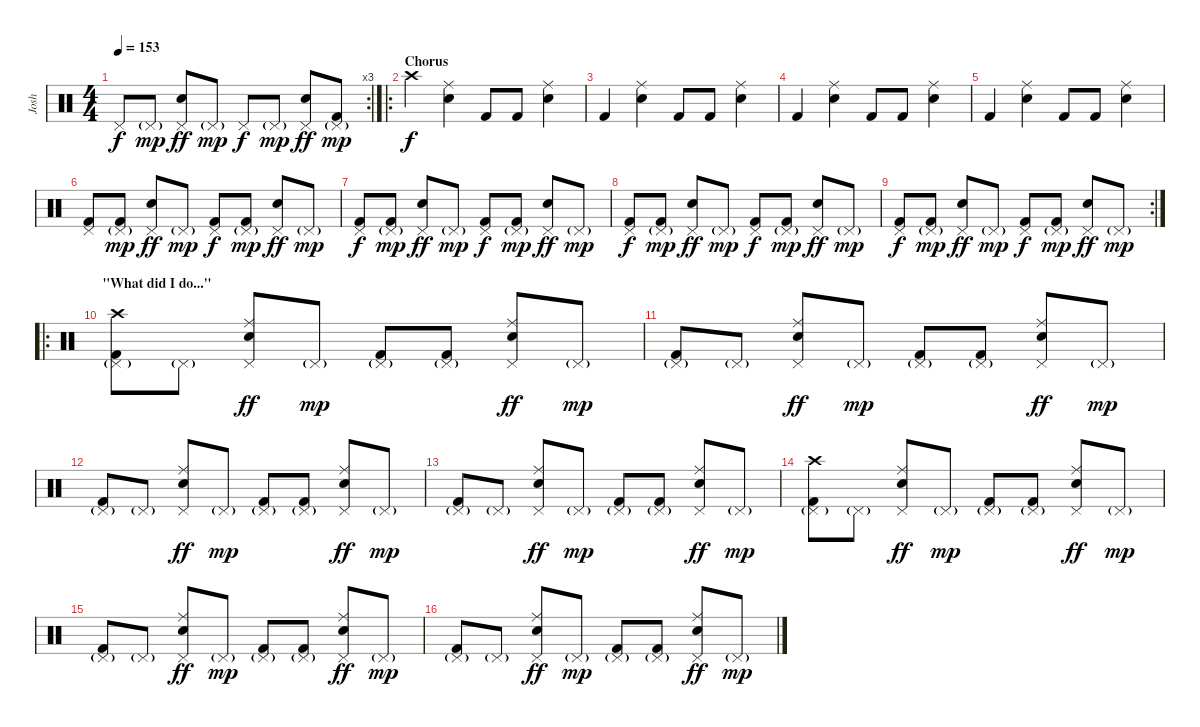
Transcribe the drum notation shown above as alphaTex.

\track ("Josh" "Josh") {instrument percussion}
\staff {score}
\articulation defaults
\rc 3
\ts (4 4)
\tempo 153
\clef neutral
\ks c "Pedal Hi-Hat (hit)".8{dy f} "Pedal Hi-Hat (hit)"{g}.8{dy mp}
("Pedal Hi-Hat (hit)" "Electric Snare (hit)").8{dy ff} "Pedal Hi-Hat (hit)"{g}.8{dy mp} "Pedal Hi-Hat (hit)".8{dy f} "Pedal Hi-Hat (hit)"{g}.8{dy mp} ("Pedal Hi-Hat (hit)" "Electric Snare (hit)").8{dy ff} ("Pedal Hi-Hat (hit)"{g} "Kick (hit) 2").8{dy mp} |
\ro
\section ("" "Chorus")
"Crash high (hit)".4{dy f} ("Ride (middle)" "Electric Snare (hit)").4 "Kick (hit) 2".8 "Kick (hit) 2".8 ("Ride (middle)" "Electric Snare (hit)").4 |
"Kick (hit) 2".4 ("Ride (middle)" "Electric Snare (hit)").4 "Kick (hit) 2".8 "Kick (hit) 2".8 ("Ride (middle)" "Electric Snare (hit)").4 |
"Kick (hit) 2".4 ("Ride (middle)" "Electric Snare (hit)").4 "Kick (hit) 2".8 "Kick (hit) 2".8 ("Ride (middle)" "Electric Snare (hit)").4 |
"Kick (hit) 2".4 ("Ride (middle)" "Electric Snare (hit)").4 "Kick (hit) 2".8 "Kick (hit) 2".8 ("Ride (middle)" "Electric Snare (hit)").4 |
("Pedal Hi-Hat (hit)" "Kick (hit) 2").8 ("Pedal Hi-Hat (hit)"{g} "Kick (hit) 2").8{dy mp} ("Pedal Hi-Hat (hit)" "Electric Snare (hit)").8{dy ff} "Pedal Hi-Hat (hit)"{g}.8{dy mp} ("Pedal Hi-Hat (hit)" "Kick (hit) 2").8{dy f} ("Pedal Hi-Hat (hit)"{g} "Kick (hit) 2").8{dy mp} ("Pedal Hi-Hat (hit)" "Electric Snare (hit)").8{dy ff} "Pedal Hi-Hat (hit)"{g}.8{dy mp} |
("Pedal Hi-Hat (hit)" "Kick (hit) 2").8{dy f} ("Pedal Hi-Hat (hit)"{g} "Kick (hit) 2").8{dy mp} ("Pedal Hi-Hat (hit)" "Electric Snare (hit)").8{dy ff} "Pedal Hi-Hat (hit)"{g}.8{dy mp} ("Pedal Hi-Hat (hit)" "Kick (hit) 2").8{dy f} ("Pedal Hi-Hat (hit)"{g} "Kick (hit) 2").8{dy mp} ("Pedal Hi-Hat (hit)" "Electric Snare (hit)").8{dy ff} "Pedal Hi-Hat (hit)"{g}.8{dy mp} |
("Pedal Hi-Hat (hit)" "Kick (hit) 2").8{dy f} ("Pedal Hi-Hat (hit)"{g} "Kick (hit) 2").8{dy mp} ("Pedal Hi-Hat (hit)" "Electric Snare (hit)").8{dy ff} "Pedal Hi-Hat (hit)"{g}.8{dy mp} ("Pedal Hi-Hat (hit)" "Kick (hit) 2").8{dy f} ("Pedal Hi-Hat (hit)"{g} "Kick (hit) 2").8{dy mp} ("Pedal Hi-Hat (hit)" "Electric Snare (hit)").8{dy ff} "Pedal Hi-Hat (hit)"{g}.8{dy mp} |
\rc 2
("Pedal Hi-Hat (hit)" "Kick (hit) 2").8{dy f} ("Pedal Hi-Hat (hit)"{g} "Kick (hit) 2").8{dy mp} ("Pedal Hi-Hat (hit)" "Electric Snare (hit)").8{dy ff} "Pedal Hi-Hat (hit)"{g}.8{dy mp} ("Pedal Hi-Hat (hit)" "Kick (hit) 2").8{dy f} ("Pedal Hi-Hat (hit)"{g} "Kick (hit) 2").8{dy mp} ("Pedal Hi-Hat (hit)" "Electric Snare (hit)").8{dy ff} "Pedal Hi-Hat (hit)"{g}.8{dy mp} |
\ro
\section ("" "\"What did I do...\"")
("Crash high (hit)" "Pedal Hi-Hat (hit)"{g} "Kick (hit) 2").8 "Pedal Hi-Hat (hit)"{g}.8 ("Ride (middle)" "Pedal Hi-Hat (hit)" "Electric Snare (hit)").8{dy ff} "Pedal Hi-Hat (hit)"{g}.8{dy mp} ("Pedal Hi-Hat (hit)"{g} "Kick (hit) 2").8 ("Pedal Hi-Hat (hit)"{g} "Kick (hit) 2").8 ("Ride (middle)" "Pedal Hi-Hat (hit)" "Electric Snare (hit)").8{dy ff} "Pedal Hi-Hat (hit)"{g}.8{dy mp} |
("Pedal Hi-Hat (hit)"{g} "Kick (hit) 2").8 "Pedal Hi-Hat (hit)"{g}.8 ("Ride (middle)" "Pedal Hi-Hat (hit)" "Electric Snare (hit)").8{dy ff} "Pedal Hi-Hat (hit)"{g}.8{dy mp} ("Pedal Hi-Hat (hit)"{g} "Kick (hit) 2").8 ("Pedal Hi-Hat (hit)"{g} "Kick (hit) 2").8 ("Ride (middle)" "Pedal Hi-Hat (hit)" "Electric Snare (hit)").8{dy ff} "Pedal Hi-Hat (hit)"{g}.8{dy mp} |
("Pedal Hi-Hat (hit)"{g} "Kick (hit) 2").8 "Pedal Hi-Hat (hit)"{g}.8 ("Ride (middle)" "Pedal Hi-Hat (hit)" "Electric Snare (hit)").8{dy ff} "Pedal Hi-Hat (hit)"{g}.8{dy mp} ("Pedal Hi-Hat (hit)"{g} "Kick (hit) 2").8 ("Pedal Hi-Hat (hit)"{g} "Kick (hit) 2").8 ("Ride (middle)" "Pedal Hi-Hat (hit)" "Electric Snare (hit)").8{dy ff} "Pedal Hi-Hat (hit)"{g}.8{dy mp} |
("Pedal Hi-Hat (hit)"{g} "Kick (hit) 2").8 "Pedal Hi-Hat (hit)"{g}.8 ("Ride (middle)" "Pedal Hi-Hat (hit)" "Electric Snare (hit)").8{dy ff} "Pedal Hi-Hat (hit)"{g}.8{dy mp} ("Pedal Hi-Hat (hit)"{g} "Kick (hit) 2").8 ("Pedal Hi-Hat (hit)"{g} "Kick (hit) 2").8 ("Ride (middle)" "Pedal Hi-Hat (hit)" "Electric Snare (hit)").8{dy ff} "Pedal Hi-Hat (hit)"{g}.8{dy mp} |
("Crash high (hit)" "Pedal Hi-Hat (hit)"{g} "Kick (hit) 2").8 "Pedal Hi-Hat (hit)"{g}.8 ("Ride (middle)" "Pedal Hi-Hat (hit)" "Electric Snare (hit)").8{dy ff} "Pedal Hi-Hat (hit)"{g}.8{dy mp} ("Pedal Hi-Hat (hit)"{g} "Kick (hit) 2").8 ("Pedal Hi-Hat (hit)"{g} "Kick (hit) 2").8 ("Ride (middle)" "Pedal Hi-Hat (hit)" "Electric Snare (hit)").8{dy ff} "Pedal Hi-Hat (hit)"{g}.8{dy mp} |
("Pedal Hi-Hat (hit)"{g} "Kick (hit) 2").8 "Pedal Hi-Hat (hit)"{g}.8 ("Ride (middle)" "Pedal Hi-Hat (hit)" "Electric Snare (hit)").8{dy ff} "Pedal Hi-Hat (hit)"{g}.8{dy mp} ("Pedal Hi-Hat (hit)"{g} "Kick (hit) 2").8 ("Pedal Hi-Hat (hit)"{g} "Kick (hit) 2").8 ("Ride (middle)" "Pedal Hi-Hat (hit)" "Electric Snare (hit)").8{dy ff} "Pedal Hi-Hat (hit)"{g}.8{dy mp} |
("Pedal Hi-Hat (hit)"{g} "Kick (hit) 2").8 "Pedal Hi-Hat (hit)"{g}.8 ("Ride (middle)" "Pedal Hi-Hat (hit)" "Electric Snare (hit)").8{dy ff} "Pedal Hi-Hat (hit)"{g}.8{dy mp} ("Pedal Hi-Hat (hit)"{g} "Kick (hit) 2").8 ("Pedal Hi-Hat (hit)"{g} "Kick (hit) 2").8 ("Ride (middle)" "Pedal Hi-Hat (hit)" "Electric Snare (hit)").8{dy ff} "Pedal Hi-Hat (hit)"{g}.8{dy mp}
